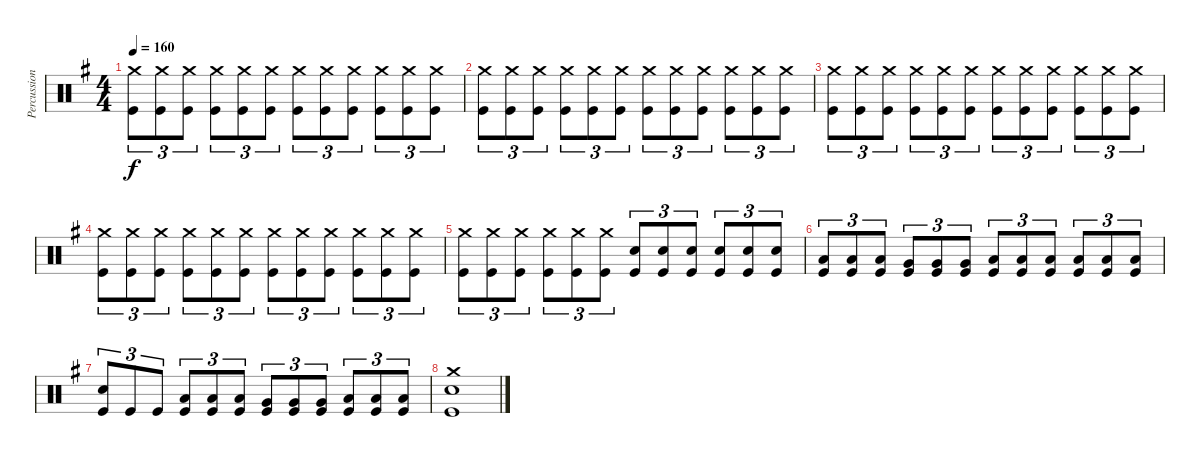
\track ("Percussions" "Percussion") {instrument percussion}
\staff {score}
\articulation defaults
\ts (4 4)
\tempo 160
\clef neutral
\ks g
("Kick (hit)" "Crash medium (hit)").8{tu (3 2) dy f} ("Kick (hit)" "Crash medium (hit)").8{tu (3 2)} ("Kick (hit)" "Crash medium (hit)").8{tu (3 2)} ("Kick (hit)" "Crash medium (hit)").8{tu (3 2)} ("Kick (hit)" "Crash medium (hit)").8{tu (3 2)} ("Kick (hit)" "Crash medium (hit)").8{tu (3 2)} ("Kick (hit)" "Crash medium (hit)").8{tu (3 2)} ("Kick (hit)" "Crash medium (hit)").8{tu (3 2)} ("Kick (hit)" "Crash medium (hit)").8{tu (3 2)} ("Kick (hit)" "Crash medium (hit)").8{tu (3 2)} ("Kick (hit)" "Crash medium (hit)").8{tu (3 2)} ("Kick (hit)" "Crash medium (hit)").8{tu (3 2)} |
("Kick (hit)" "Crash medium (hit)").8{tu (3 2)} ("Kick (hit)" "Crash medium (hit)").8{tu (3 2)} ("Kick (hit)" "Crash medium (hit)").8{tu (3 2)} ("Kick (hit)" "Crash medium (hit)").8{tu (3 2)} ("Kick (hit)" "Crash medium (hit)").8{tu (3 2)} ("Kick (hit)" "Crash medium (hit)").8{tu (3 2)} ("Kick (hit)" "Crash medium (hit)").8{tu (3 2)} ("Kick (hit)" "Crash medium (hit)").8{tu (3 2)} ("Kick (hit)" "Crash medium (hit)").8{tu (3 2)} ("Kick (hit)" "Crash medium (hit)").8{tu (3 2)} ("Kick (hit)" "Crash medium (hit)").8{tu (3 2)} ("Kick (hit)" "Crash medium (hit)").8{tu (3 2)} |
("Kick (hit)" "Crash medium (hit)").8{tu (3 2)} ("Kick (hit)" "Crash medium (hit)").8{tu (3 2)} ("Kick (hit)" "Crash medium (hit)").8{tu (3 2)} ("Kick (hit)" "Crash medium (hit)").8{tu (3 2)} ("Kick (hit)" "Crash medium (hit)").8{tu (3 2)} ("Kick (hit)" "Crash medium (hit)").8{tu (3 2)} ("Kick (hit)" "Crash medium (hit)").8{tu (3 2)} ("Kick (hit)" "Crash medium (hit)").8{tu (3 2)} ("Kick (hit)" "Crash medium (hit)").8{tu (3 2)} ("Kick (hit)" "Crash medium (hit)").8{tu (3 2)} ("Kick (hit)" "Crash medium (hit)").8{tu (3 2)} ("Kick (hit)" "Crash medium (hit)").8{tu (3 2)} |
("Kick (hit)" "Crash medium (hit)").8{tu (3 2)} ("Kick (hit)" "Crash medium (hit)").8{tu (3 2)} ("Kick (hit)" "Crash medium (hit)").8{tu (3 2)} ("Kick (hit)" "Crash medium (hit)").8{tu (3 2)} ("Kick (hit)" "Crash medium (hit)").8{tu (3 2)} ("Kick (hit)" "Crash medium (hit)").8{tu (3 2)} ("Kick (hit)" "Crash medium (hit)").8{tu (3 2)} ("Kick (hit)" "Crash medium (hit)").8{tu (3 2)} ("Kick (hit)" "Crash medium (hit)").8{tu (3 2)} ("Kick (hit)" "Crash medium (hit)").8{tu (3 2)} ("Kick (hit)" "Crash medium (hit)").8{tu (3 2)} ("Kick (hit)" "Crash medium (hit)").8{tu (3 2)} |
("Kick (hit)" "Crash medium (hit)").8{tu (3 2)} ("Kick (hit)" "Crash medium (hit)").8{tu (3 2)} ("Kick (hit)" "Crash medium (hit)").8{tu (3 2)} ("Kick (hit)" "Crash medium (hit)").8{tu (3 2)} ("Kick (hit)" "Crash medium (hit)").8{tu (3 2)} ("Kick (hit)" "Crash medium (hit)").8{tu (3 2)} ("Kick (hit)" "Electric Snare (hit)").8{tu (3 2)} ("Kick (hit)" "Electric Snare (hit)").8{tu (3 2)} ("Kick (hit)" "Electric Snare (hit)").8{tu (3 2)} ("Kick (hit)" "Electric Snare (hit)").8{tu (3 2)} ("Kick (hit)" "Electric Snare (hit)").8{tu (3 2)} ("Kick (hit)" "Electric Snare (hit)").8{tu (3 2)} |
("Kick (hit)" "Low Tom (hit)").8{tu (3 2)} ("Kick (hit)" "Low Tom (hit)").8{tu (3 2)} ("Kick (hit)" "Low Tom (hit)").8{tu (3 2)} ("Kick (hit)" "Very Low Tom (hit)").8{tu (3 2)} ("Kick (hit)" "Very Low Tom (hit)").8{tu (3 2)} ("Kick (hit)" "Very Low Tom (hit)").8{tu (3 2)} ("Kick (hit)" "Low Floor Tom (hit)").8{tu (3 2)} ("Kick (hit)" "Low Floor Tom (hit)").8{tu (3 2)} ("Kick (hit)" "Low Floor Tom (hit)").8{tu (3 2)} ("Kick (hit)" "Low Floor Tom (hit)").8{tu (3 2)} ("Kick (hit)" "Low Floor Tom (hit)").8{tu (3 2)} ("Kick (hit)" "Low Floor Tom (hit)").8{tu (3 2)} |
("Kick (hit)" "Electric Snare (hit)").8{tu (3 2)} "Kick (hit)".8{tu (3 2)} "Kick (hit)".8{tu (3 2)} ("Kick (hit)" "Low Tom (hit)").8{tu (3 2)} ("Kick (hit)" "Low Tom (hit)").8{tu (3 2)} ("Kick (hit)" "Low Tom (hit)").8{tu (3 2)} ("Kick (hit)" "Very Low Tom (hit)").8{tu (3 2)} ("Kick (hit)" "Very Low Tom (hit)").8{tu (3 2)} ("Kick (hit)" "Very Low Tom (hit)").8{tu (3 2)} ("Kick (hit)" "Low Floor Tom (hit)").8{tu (3 2)} ("Kick (hit)" "Low Floor Tom (hit)").8{tu (3 2)} ("Kick (hit)" "Low Floor Tom (hit)").8{tu (3 2)} |
("Kick (hit)" "Crash medium (hit)" "Electric Snare (hit)").1
